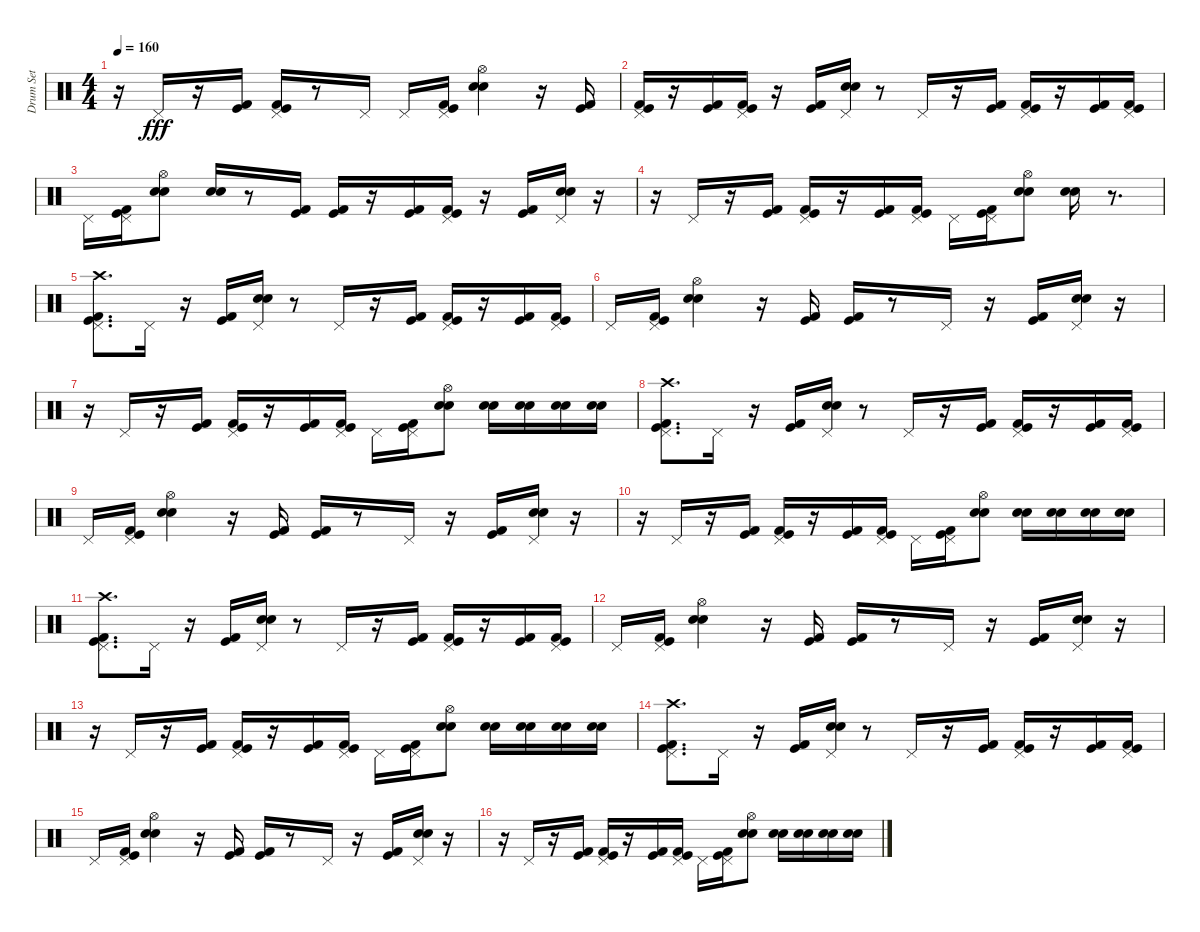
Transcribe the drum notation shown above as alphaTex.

\track ("Drum Set" "Drum Set") {instrument percussion}
\staff {score}
\articulation defaults
\ts (4 4)
\tempo 160
\clef neutral
\ks c
r.16{dy fff} "Pedal Hi-Hat (hit)".16 r.16 ("Kick (hit)" "Kick (hit) 2").16 ("Pedal Hi-Hat (hit)" "Kick (hit)" "Kick (hit) 2").16 r.8 "Pedal Hi-Hat (hit)".16 "Pedal Hi-Hat (hit)".16 ("Pedal Hi-Hat (hit)" "Kick (hit)" "Kick (hit) 2").16 ("Hi-Hat (open)" "Electric Snare (hit)" "Snare (hit) 2").4 r.16 ("Kick (hit)" "Kick (hit) 2").16 |
("Kick (hit)" "Kick (hit) 2" "Pedal Hi-Hat (hit)").16 r.16 ("Kick (hit)" "Kick (hit) 2").16 ("Kick (hit)" "Kick (hit) 2" "Pedal Hi-Hat (hit)").16 r.16 ("Kick (hit)" "Kick (hit) 2").16 ("Electric Snare (hit)" "Snare (hit) 2" "Pedal Hi-Hat (hit)").16 r.8 "Pedal Hi-Hat (hit)".16 r.16 ("Kick (hit)" "Kick (hit) 2").16 ("Kick (hit)" "Kick (hit) 2" "Pedal Hi-Hat (hit)").16 r.16 ("Kick (hit)" "Kick (hit) 2").16 ("Kick (hit) 2" "Kick (hit)" "Pedal Hi-Hat (hit)").16 |
"Pedal Hi-Hat (hit)".16 ("Kick (hit)" "Kick (hit) 2" "Pedal Hi-Hat (hit)").16 ("Snare (hit) 2" "Electric Snare (hit)" "Hi-Hat (open)").8 ("Electric Snare (hit)" "Snare (hit) 2").16 r.8 ("Kick (hit)" "Kick (hit) 2").16 ("Kick (hit)" "Kick (hit) 2").16 r.16 ("Kick (hit)" "Kick (hit) 2").16 ("Pedal Hi-Hat (hit)" "Kick (hit)" "Kick (hit) 2").16 r.16 ("Kick (hit)" "Kick (hit) 2").16 ("Pedal Hi-Hat (hit)" "Electric Snare (hit)" "Snare (hit) 2").16 r.16 |
r.16 "Pedal Hi-Hat (hit)".16 r.16 ("Kick (hit)" "Kick (hit) 2").16 ("Pedal Hi-Hat (hit)" "Kick (hit)" "Kick (hit) 2").16 r.16 ("Kick (hit)" "Kick (hit) 2").16 ("Pedal Hi-Hat (hit)" "Kick (hit) 2" "Kick (hit)").16 "Pedal Hi-Hat (hit)".16 ("Pedal Hi-Hat (hit)" "Kick (hit)" "Kick (hit) 2").16 ("Hi-Hat (open)" "Snare (hit) 2" "Electric Snare (hit)").8 ("Electric Snare (hit)" "Snare (hit) 2").16 r.8{d} |
("Kick (hit)" "Kick (hit) 2" "Crash high (hit)" "Pedal Hi-Hat (hit)").8{d} "Pedal Hi-Hat (hit)".16 r.16 ("Kick (hit) 2" "Kick (hit)").16 ("Electric Snare (hit)" "Snare (hit) 2" "Pedal Hi-Hat (hit)").16 r.8 "Pedal Hi-Hat (hit)".16 r.16 ("Kick (hit) 2" "Kick (hit)").16 ("Kick (hit)" "Kick (hit) 2" "Pedal Hi-Hat (hit)").16 r.16 ("Kick (hit) 2" "Kick (hit)").16 ("Kick (hit)" "Kick (hit) 2" "Pedal Hi-Hat (hit)").16 |
"Pedal Hi-Hat (hit)".16 ("Kick (hit)" "Kick (hit) 2" "Pedal Hi-Hat (hit)").16 ("Snare (hit) 2" "Electric Snare (hit)" "Hi-Hat (open)").4 r.16 ("Kick (hit)" "Kick (hit) 2").16 ("Kick (hit)" "Kick (hit) 2").16 r.8 "Pedal Hi-Hat (hit)".16 r.16 ("Kick (hit) 2" "Kick (hit)").16 ("Snare (hit) 2" "Electric Snare (hit)" "Pedal Hi-Hat (hit)").16 r.16 |
r.16 "Pedal Hi-Hat (hit)".16 r.16 ("Kick (hit)" "Kick (hit) 2").16 ("Kick (hit)" "Kick (hit) 2" "Pedal Hi-Hat (hit)").16 r.16 ("Kick (hit)" "Kick (hit) 2").16 ("Kick (hit)" "Kick (hit) 2" "Pedal Hi-Hat (hit)").16 "Pedal Hi-Hat (hit)".16 ("Kick (hit) 2" "Kick (hit)" "Pedal Hi-Hat (hit)").16 ("Snare (hit) 2" "Electric Snare (hit)" "Hi-Hat (open)").8 ("Snare (hit) 2" "Electric Snare (hit)").16 ("Electric Snare (hit)" "Snare (hit) 2").16 ("Snare (hit) 2" "Electric Snare (hit)").16 ("Electric Snare (hit)" "Snare (hit) 2").16 |
("Kick (hit)" "Kick (hit) 2" "Crash high (hit)" "Pedal Hi-Hat (hit)").8{d} "Pedal Hi-Hat (hit)".16 r.16 ("Kick (hit) 2" "Kick (hit)").16 ("Electric Snare (hit)" "Snare (hit) 2" "Pedal Hi-Hat (hit)").16 r.8 "Pedal Hi-Hat (hit)".16 r.16 ("Kick (hit) 2" "Kick (hit)").16 ("Kick (hit)" "Kick (hit) 2" "Pedal Hi-Hat (hit)").16 r.16 ("Kick (hit) 2" "Kick (hit)").16 ("Kick (hit)" "Kick (hit) 2" "Pedal Hi-Hat (hit)").16 |
"Pedal Hi-Hat (hit)".16 ("Kick (hit)" "Kick (hit) 2" "Pedal Hi-Hat (hit)").16 ("Snare (hit) 2" "Electric Snare (hit)" "Hi-Hat (open)").4 r.16 ("Kick (hit)" "Kick (hit) 2").16 ("Kick (hit)" "Kick (hit) 2").16 r.8 "Pedal Hi-Hat (hit)".16 r.16 ("Kick (hit) 2" "Kick (hit)").16 ("Snare (hit) 2" "Electric Snare (hit)" "Pedal Hi-Hat (hit)").16 r.16 |
r.16 "Pedal Hi-Hat (hit)".16 r.16 ("Kick (hit)" "Kick (hit) 2").16 ("Kick (hit)" "Kick (hit) 2" "Pedal Hi-Hat (hit)").16 r.16 ("Kick (hit)" "Kick (hit) 2").16 ("Kick (hit)" "Kick (hit) 2" "Pedal Hi-Hat (hit)").16 "Pedal Hi-Hat (hit)".16 ("Kick (hit) 2" "Kick (hit)" "Pedal Hi-Hat (hit)").16 ("Snare (hit) 2" "Electric Snare (hit)" "Hi-Hat (open)").8 ("Snare (hit) 2" "Electric Snare (hit)").16 ("Electric Snare (hit)" "Snare (hit) 2").16 ("Snare (hit) 2" "Electric Snare (hit)").16 ("Electric Snare (hit)" "Snare (hit) 2").16 |
("Kick (hit)" "Kick (hit) 2" "Crash high (hit)" "Pedal Hi-Hat (hit)").8{d} "Pedal Hi-Hat (hit)".16 r.16 ("Kick (hit) 2" "Kick (hit)").16 ("Electric Snare (hit)" "Snare (hit) 2" "Pedal Hi-Hat (hit)").16 r.8 "Pedal Hi-Hat (hit)".16 r.16 ("Kick (hit) 2" "Kick (hit)").16 ("Kick (hit)" "Kick (hit) 2" "Pedal Hi-Hat (hit)").16 r.16 ("Kick (hit) 2" "Kick (hit)").16 ("Kick (hit)" "Kick (hit) 2" "Pedal Hi-Hat (hit)").16 |
"Pedal Hi-Hat (hit)".16 ("Kick (hit)" "Kick (hit) 2" "Pedal Hi-Hat (hit)").16 ("Snare (hit) 2" "Electric Snare (hit)" "Hi-Hat (open)").4 r.16 ("Kick (hit)" "Kick (hit) 2").16 ("Kick (hit)" "Kick (hit) 2").16 r.8 "Pedal Hi-Hat (hit)".16 r.16 ("Kick (hit) 2" "Kick (hit)").16 ("Snare (hit) 2" "Electric Snare (hit)" "Pedal Hi-Hat (hit)").16 r.16 |
r.16 "Pedal Hi-Hat (hit)".16 r.16 ("Kick (hit)" "Kick (hit) 2").16 ("Kick (hit)" "Kick (hit) 2" "Pedal Hi-Hat (hit)").16 r.16 ("Kick (hit)" "Kick (hit) 2").16 ("Kick (hit)" "Kick (hit) 2" "Pedal Hi-Hat (hit)").16 "Pedal Hi-Hat (hit)".16 ("Kick (hit) 2" "Kick (hit)" "Pedal Hi-Hat (hit)").16 ("Snare (hit) 2" "Electric Snare (hit)" "Hi-Hat (open)").8 ("Snare (hit) 2" "Electric Snare (hit)").16 ("Electric Snare (hit)" "Snare (hit) 2").16 ("Snare (hit) 2" "Electric Snare (hit)").16 ("Electric Snare (hit)" "Snare (hit) 2").16 |
("Kick (hit)" "Kick (hit) 2" "Crash high (hit)" "Pedal Hi-Hat (hit)").8{d} "Pedal Hi-Hat (hit)".16 r.16 ("Kick (hit) 2" "Kick (hit)").16 ("Electric Snare (hit)" "Snare (hit) 2" "Pedal Hi-Hat (hit)").16 r.8 "Pedal Hi-Hat (hit)".16 r.16 ("Kick (hit) 2" "Kick (hit)").16 ("Kick (hit)" "Kick (hit) 2" "Pedal Hi-Hat (hit)").16 r.16 ("Kick (hit) 2" "Kick (hit)").16 ("Kick (hit)" "Kick (hit) 2" "Pedal Hi-Hat (hit)").16 |
"Pedal Hi-Hat (hit)".16 ("Kick (hit)" "Kick (hit) 2" "Pedal Hi-Hat (hit)").16 ("Snare (hit) 2" "Electric Snare (hit)" "Hi-Hat (open)").4 r.16 ("Kick (hit)" "Kick (hit) 2").16 ("Kick (hit)" "Kick (hit) 2").16 r.8 "Pedal Hi-Hat (hit)".16 r.16 ("Kick (hit) 2" "Kick (hit)").16 ("Snare (hit) 2" "Electric Snare (hit)" "Pedal Hi-Hat (hit)").16 r.16 |
r.16 "Pedal Hi-Hat (hit)".16 r.16 ("Kick (hit)" "Kick (hit) 2").16 ("Kick (hit)" "Kick (hit) 2" "Pedal Hi-Hat (hit)").16 r.16 ("Kick (hit)" "Kick (hit) 2").16 ("Kick (hit)" "Kick (hit) 2" "Pedal Hi-Hat (hit)").16 "Pedal Hi-Hat (hit)".16 ("Kick (hit) 2" "Kick (hit)" "Pedal Hi-Hat (hit)").16 ("Snare (hit) 2" "Electric Snare (hit)" "Hi-Hat (open)").8 ("Snare (hit) 2" "Electric Snare (hit)").16 ("Electric Snare (hit)" "Snare (hit) 2").16 ("Snare (hit) 2" "Electric Snare (hit)").16 ("Electric Snare (hit)" "Snare (hit) 2").16
